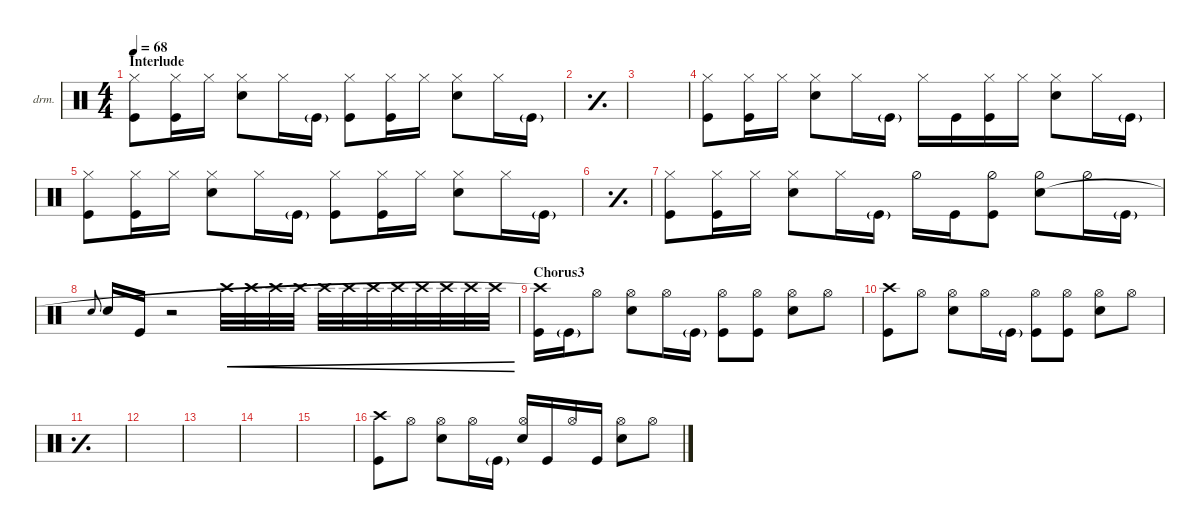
\defaultSystemsLayout 4
\hideDynamics
\bracketExtendMode nobrackets
\firstSystemTrackNameOrientation horizontal
\track ("Drumkit" "drm.") {defaultSystemsLayout 4 instrument percussion}
\staff {score}
\articulation defaults
\ts (4 4)
\section ("" "Interlude")
\tempo 68
\clef neutral
\scale
0.265955
\ks c
("Hi-Hat (closed)" "Kick (hit)").8{dy mf} ("Hi-Hat (closed)" "Kick (hit)").16 "Hi-Hat (closed)".16 ("Hi-Hat (closed)" "Snare (hit) 2").8 "Hi-Hat (closed)".16 "Kick (hit)"{g}.16 ("Hi-Hat (closed)" "Kick (hit)").8 ("Hi-Hat (closed)" "Kick (hit)").16 "Hi-Hat (closed)".16 ("Hi-Hat (closed)" "Snare (hit) 2").8 "Hi-Hat (closed)".16 "Kick (hit)"{g}.16 |
\simile simple
\scale
0.244682 |
\scale
0.244682 |
\simile none
\scale
0.244682 ("Hi-Hat (closed)" "Kick (hit)").8 ("Hi-Hat (closed)" "Kick (hit)").16 "Hi-Hat (closed)".16 ("Hi-Hat (closed)" "Snare (hit) 2").8 "Hi-Hat (closed)".16 "Kick (hit)"{g}.16 "Hi-Hat (closed)".16 "Kick (hit)".16 ("Hi-Hat (closed)" "Kick (hit)").16 "Hi-Hat (closed)".16 ("Hi-Hat (closed)" "Snare (hit) 2").8 "Hi-Hat (closed)".16 "Kick (hit)"{g}.16 |
\scale
0.26485 ("Hi-Hat (closed)" "Kick (hit)").8 ("Hi-Hat (closed)" "Kick (hit)").16 "Hi-Hat (closed)".16 ("Hi-Hat (closed)" "Snare (hit) 2").8 "Hi-Hat (closed)".16 "Kick (hit)"{g}.16 ("Hi-Hat (closed)" "Kick (hit)").8 ("Hi-Hat (closed)" "Kick (hit)").16 "Hi-Hat (closed)".16 ("Hi-Hat (closed)" "Snare (hit) 2").8 "Hi-Hat (closed)".16 "Kick (hit)"{g}.16 |
\simile simple
\scale
0.243576 |
\simile none
\scale
0.243576 ("Hi-Hat (closed)" "Kick (hit)").8 ("Hi-Hat (closed)" "Kick (hit)").16 "Hi-Hat (closed)".16 ("Hi-Hat (closed)" "Snare (hit) 2").8 "Hi-Hat (closed)".16 "Kick (hit)"{g}.16 "Hi-Hat (half)".16 "Kick (hit)".16 ("Hi-Hat (half)" "Kick (hit)").8 ("Hi-Hat (half)" "Snare (hit) 2").8 "Hi-Hat (half)".16 "Kick (hit)"{g}.16 |
\scale
0.247997 "Snare (hit) 2".8{gr onbeat} "Snare (hit) 2".16 "Kick (hit)".16 r.2 "Crash high (hit)".32{cre} "Crash high (hit)".32{cre} "Crash high (hit)".32{cre} "Crash high (hit)".32{cre} "Crash high (hit)".32{cre} "Crash high (hit)".32{cre} "Crash high (hit)".32{cre} "Crash high (hit)".32{cre} "Crash high (hit)".32{cre} "Crash high (hit)".32{cre} "Crash high (hit)".32{cre} "Crash high (hit)".32{cre} |
\section ("" "Chorus3")
\scale
0.265955 ("Kick (hit)" "Crash high (hit)"{t}).16 "Kick (hit)"{g}.16 "Hi-Hat (open)".8 ("Hi-Hat (open)" "Snare (hit) 2").8 "Hi-Hat (open)".16 "Kick (hit)"{g}.16 ("Kick (hit)" "Hi-Hat (open)").8 ("Kick (hit)" "Hi-Hat (open)").8 ("Hi-Hat (open)" "Snare (hit) 2").8 "Hi-Hat (open)".8 |
\scale
0.244682 ("Kick (hit)" "Crash high (hit)").8{beam Down} "Hi-Hat (open)".8{beam Down} ("Hi-Hat (open)" "Snare (hit) 2").8{beam Down} "Hi-Hat (open)".16{beam Down} "Kick (hit)"{g}.16{beam Down} ("Kick (hit)" "Hi-Hat (open)").8{beam Down} ("Kick (hit)" "Hi-Hat (open)").8{beam Down} ("Hi-Hat (open)" "Snare (hit) 2").8{beam Down} "Hi-Hat (open)".8{beam Down} |
\simile simple
\scale
0.244682 |
\scale
0.244682 |
\scale
0.26485 |
\scale
0.243576 |
\scale
0.243576 |
\simile none
\scale
0.247997 ("Kick (hit)" "Crash high (hit)").8{beam Down} "Hi-Hat (open)".8{beam Down} ("Hi-Hat (open)" "Snare (hit) 2").8{beam Down} "Hi-Hat (open)".16{beam Down} "Kick (hit)"{g}.16{beam Down} ("Hi-Hat (open)" "Snare (hit) 2").16{beam Up} "Kick (hit)".16{beam Up} "Hi-Hat (open)".16{beam Up} "Kick (hit)".16{beam Up} ("Snare (hit) 2" "Hi-Hat (open)").8{beam Down} "Hi-Hat (open)".8{beam Down}
